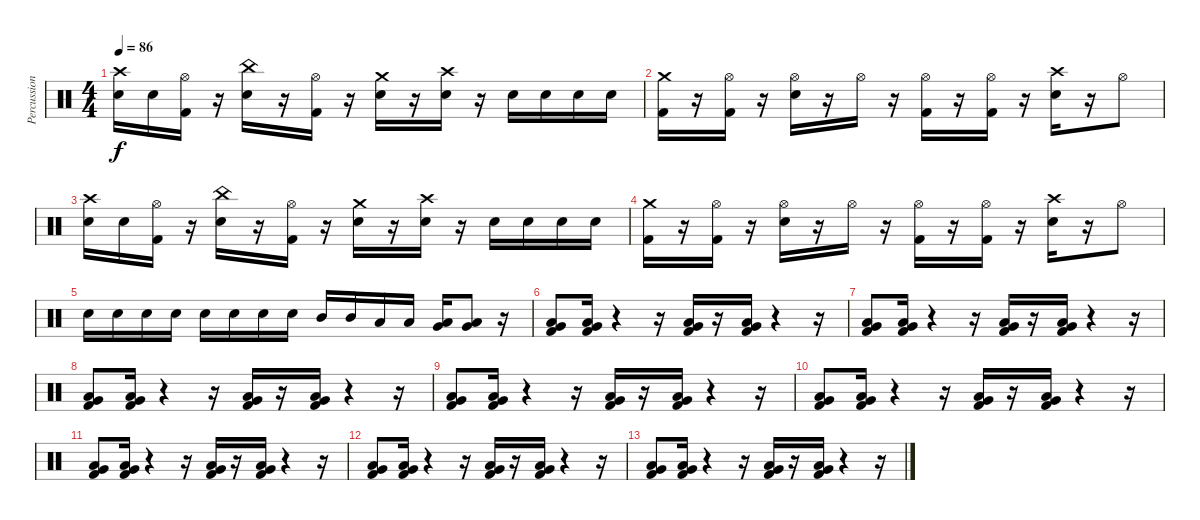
\track ("Percussions" "Percussion") {instrument percussion}
\staff {score}
\articulation defaults
\ts (4 4)
\tempo 86
\clef neutral
\ks c
("Crash high (hit)" "Snare (hit) 2").16{dy f} "Snare (hit) 2".16 ("Kick (hit) 2" "Hi-Hat (open)").16 r.16 ("China (hit)" "Snare (hit) 2").16 r.16 ("Kick (hit) 2" "Hi-Hat (open)").16 r.16 ("Crash medium (hit)" "Snare (hit) 2").16 r.16 ("Crash high (hit)" "Snare (hit) 2").16 r.16 "Snare (hit) 2".16 "Snare (hit) 2".16 "Snare (hit) 2".16 "Snare (hit) 2".16 |
("Crash medium (hit)" "Kick (hit) 2").16 r.16 ("Hi-Hat (open)" "Kick (hit) 2").16 r.16 ("Hi-Hat (open)" "Snare (hit) 2").16 r.16 "Hi-Hat (open)".16 r.16 ("Kick (hit) 2" "Hi-Hat (open)").16 r.16 ("Hi-Hat (open)" "Kick (hit) 2").16 r.16 ("Crash high (hit)" "Snare (hit) 2").16 r.16 "Hi-Hat (open)".8 |
("Crash high (hit)" "Snare (hit) 2").16 "Snare (hit) 2".16 ("Kick (hit) 2" "Hi-Hat (open)").16 r.16 ("China (hit)" "Snare (hit) 2").16 r.16 ("Kick (hit) 2" "Hi-Hat (open)").16 r.16 ("Crash medium (hit)" "Snare (hit) 2").16 r.16 ("Crash high (hit)" "Snare (hit) 2").16 r.16 "Snare (hit) 2".16 "Snare (hit) 2".16 "Snare (hit) 2".16 "Snare (hit) 2".16 |
("Crash medium (hit)" "Kick (hit) 2").16 r.16 ("Hi-Hat (open)" "Kick (hit) 2").16 r.16 ("Hi-Hat (open)" "Snare (hit) 2").16 r.16 "Hi-Hat (open)".16 r.16 ("Kick (hit) 2" "Hi-Hat (open)").16 r.16 ("Hi-Hat (open)" "Kick (hit) 2").16 r.16 ("Crash high (hit)" "Snare (hit) 2").16 r.16 "Hi-Hat (open)".8 |
"Snare (hit) 2".16 "Snare (hit) 2".16 "Snare (hit) 2".16 "Snare (hit) 2".16 "Snare (hit) 2".16 "Snare (hit) 2".16 "Snare (hit) 2".16 "Snare (hit) 2".16 "Mid Tom (hit)".16 "Mid Tom (hit)".16 "Low Tom (hit)".16 "Low Tom (hit)".16 ("Low Tom (hit)" "Very Low Tom (hit)").16 ("Low Tom (hit)" "Very Low Tom (hit)").8 r.16 |
("Very Low Tom (hit)" "Low Tom (hit)" "Kick (hit) 2").8 ("Low Tom (hit)" "Very Low Tom (hit)" "Kick (hit) 2").16 r.4 r.16 ("Low Tom (hit)" "Very Low Tom (hit)" "Kick (hit) 2").16 r.16 ("Low Tom (hit)" "Very Low Tom (hit)" "Kick (hit) 2").16 r.4 r.16 |
("Very Low Tom (hit)" "Low Tom (hit)" "Kick (hit) 2").8 ("Low Tom (hit)" "Very Low Tom (hit)" "Kick (hit) 2").16 r.4 r.16 ("Low Tom (hit)" "Very Low Tom (hit)" "Kick (hit) 2").16 r.16 ("Low Tom (hit)" "Very Low Tom (hit)" "Kick (hit) 2").16 r.4 r.16 |
("Very Low Tom (hit)" "Low Tom (hit)" "Kick (hit) 2").8 ("Low Tom (hit)" "Very Low Tom (hit)" "Kick (hit) 2").16 r.4 r.16 ("Low Tom (hit)" "Very Low Tom (hit)" "Kick (hit) 2").16 r.16 ("Low Tom (hit)" "Very Low Tom (hit)" "Kick (hit) 2").16 r.4 r.16 |
("Very Low Tom (hit)" "Low Tom (hit)" "Kick (hit) 2").8 ("Low Tom (hit)" "Very Low Tom (hit)" "Kick (hit) 2").16 r.4 r.16 ("Low Tom (hit)" "Very Low Tom (hit)" "Kick (hit) 2").16 r.16 ("Low Tom (hit)" "Very Low Tom (hit)" "Kick (hit) 2").16 r.4 r.16 |
("Very Low Tom (hit)" "Low Tom (hit)" "Kick (hit) 2").8 ("Low Tom (hit)" "Very Low Tom (hit)" "Kick (hit) 2").16 r.4 r.16 ("Low Tom (hit)" "Very Low Tom (hit)" "Kick (hit) 2").16 r.16 ("Low Tom (hit)" "Very Low Tom (hit)" "Kick (hit) 2").16 r.4 r.16 |
("Very Low Tom (hit)" "Low Tom (hit)" "Kick (hit) 2").8 ("Low Tom (hit)" "Very Low Tom (hit)" "Kick (hit) 2").16 r.4 r.16 ("Low Tom (hit)" "Very Low Tom (hit)" "Kick (hit) 2").16 r.16 ("Low Tom (hit)" "Very Low Tom (hit)" "Kick (hit) 2").16 r.4 r.16 |
("Very Low Tom (hit)" "Low Tom (hit)" "Kick (hit) 2").8 ("Low Tom (hit)" "Very Low Tom (hit)" "Kick (hit) 2").16 r.4 r.16 ("Low Tom (hit)" "Very Low Tom (hit)" "Kick (hit) 2").16 r.16 ("Low Tom (hit)" "Very Low Tom (hit)" "Kick (hit) 2").16 r.4 r.16 |
("Very Low Tom (hit)" "Low Tom (hit)" "Kick (hit) 2").8 ("Low Tom (hit)" "Very Low Tom (hit)" "Kick (hit) 2").16 r.4 r.16 ("Low Tom (hit)" "Very Low Tom (hit)" "Kick (hit) 2").16 r.16 ("Low Tom (hit)" "Very Low Tom (hit)" "Kick (hit) 2").16 r.4 r.16
